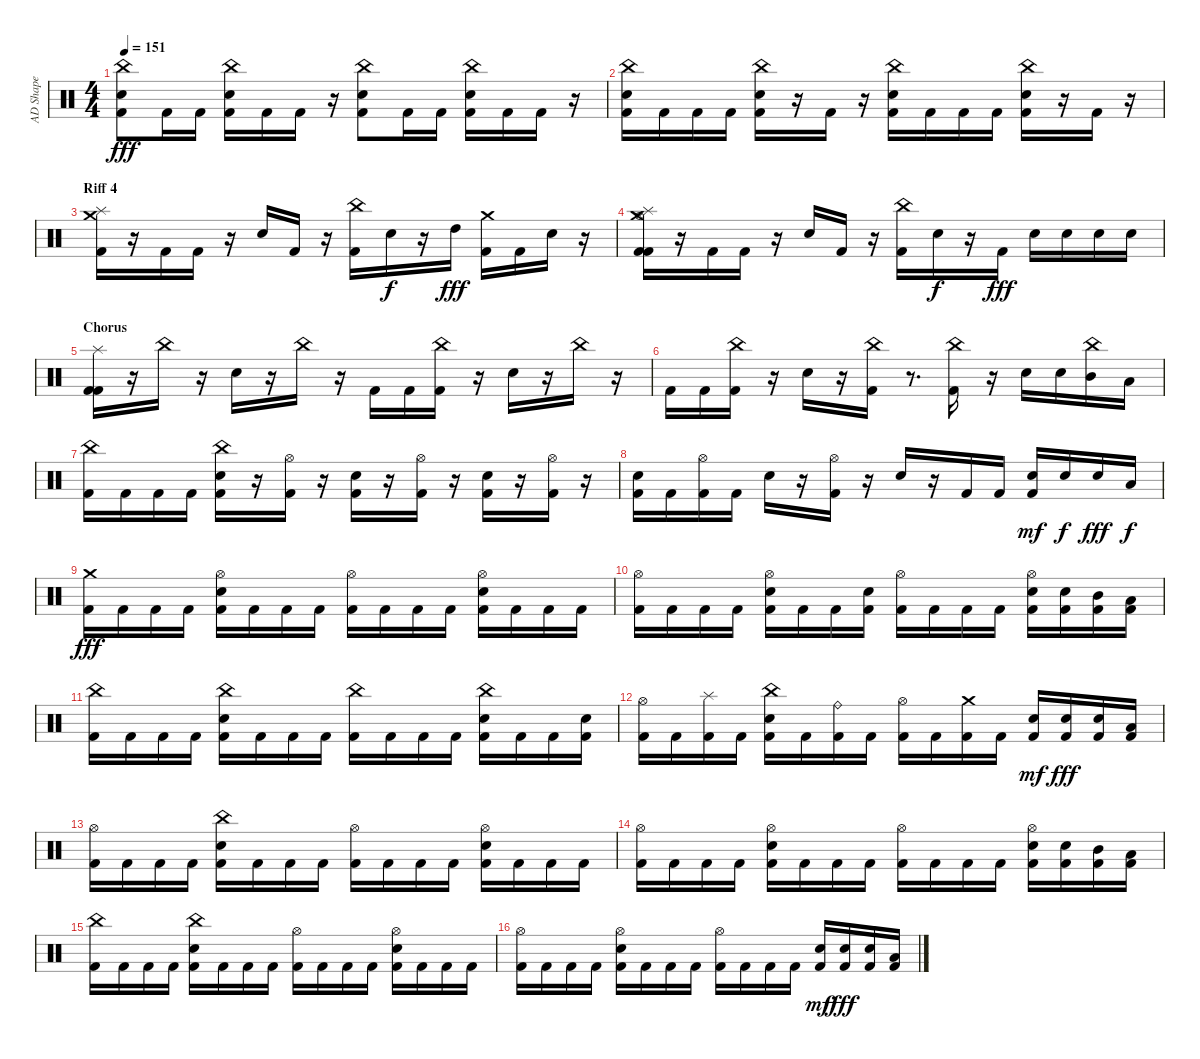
\track ("AD Shape" "AD Shape") {instrument percussion}
\staff {score}
\articulation defaults
\ts (4 4)
\tempo 151
\clef neutral
\ks c
("Kick (hit) 2" "Snare (hit) 2" "China (hit)").8{dy fff} "Kick (hit) 2".16 "Kick (hit) 2".16 ("Kick (hit) 2" "Snare (hit) 2" "China (hit)").16 "Kick (hit) 2".16 "Kick (hit) 2".16 r.16 ("Kick (hit) 2" "Snare (hit) 2" "China (hit)").8 "Kick (hit) 2".16 "Kick (hit) 2".16 ("Kick (hit) 2" "Snare (hit) 2" "China (hit)").16 "Kick (hit) 2".16 "Kick (hit) 2".16 r.16 |
("Kick (hit) 2" "Snare (hit) 2" "China (hit)").16 "Kick (hit) 2".16 "Kick (hit) 2".16 "Kick (hit) 2".16 ("Kick (hit) 2" "Snare (hit) 2" "China (hit)").16 r.16 "Kick (hit) 2".16 r.16 ("Kick (hit) 2" "Snare (hit) 2" "China (hit)").16 "Kick (hit) 2".16 "Kick (hit) 2".16 "Kick (hit) 2".16 ("Kick (hit) 2" "Snare (hit) 2" "China (hit)").16 r.16 "Kick (hit) 2".16 r.16 |
\section ("" "Riff 4")
("Kick (hit) 2" "Splash (hit)" "Crash medium (hit)").16 r.16 "Kick (hit) 2".16 "Kick (hit) 2".16 r.16 "Snare (hit) 2".16 "Kick (hit) 2".16 r.16 ("Kick (hit) 2" "China (hit)").16 "Snare (hit) 2".16{dy f} r.16 "High Tom (hit)".16{dy fff} ("Kick (hit) 2" "Crash medium (hit)").16 "Kick (hit) 2".16 "Snare (hit) 2".16 r.16 |
("Kick (hit) 2" "Splash (hit)" "Kick (hit) 2" "Hi-Hat (open)" "Crash medium (hit)").16 r.16 "Kick (hit) 2".16 "Kick (hit) 2".16 r.16 "Snare (hit) 2".16 "Kick (hit) 2".16 r.16 ("Kick (hit) 2" "China (hit)").16 "Snare (hit) 2".16{dy f} r.16 "Kick (hit) 2".16{dy fff} "Snare (hit) 2".16 "Snare (hit) 2".16 "Snare (hit) 2".16 "Snare (hit) 2".16 |
\section ("" "Chorus")
("Kick (hit) 2" "Splash (hit)" "Kick (hit) 2").16 r.16 "China (hit)".16 r.16 "Snare (hit) 2".16 r.16 "China (hit)".16 r.16 "Kick (hit) 2".16 "Kick (hit) 2".16 ("Kick (hit) 2" "China (hit)").16 r.16 "Snare (hit) 2".16 r.16 "China (hit)".16 r.16 |
"Kick (hit) 2".16 "Kick (hit) 2".16 ("Kick (hit) 2" "China (hit)").16 r.16 "Snare (hit) 2".16 r.16 ("Kick (hit) 2" "China (hit)").16 r.8{d} ("Kick (hit) 2" "China (hit)").16 r.16 "Snare (hit) 2".16 "Snare (hit) 2".16 ("Mid Tom (hit)" "China (hit)").16 "Low Tom (hit)".16 |
("Kick (hit) 2" "China (hit)").16 "Kick (hit) 2".16 "Kick (hit) 2".16 "Kick (hit) 2".16 ("Kick (hit) 2" "Snare (hit) 2" "China (hit)").16 r.16 ("Kick (hit) 2" "Hi-Hat (open)").16 r.16 ("Kick (hit) 2" "Snare (hit) 2").16 r.16 ("Kick (hit) 2" "Hi-Hat (open)").16 r.16 ("Kick (hit) 2" "Snare (hit) 2").16 r.16 ("Kick (hit) 2" "Hi-Hat (open)").16 r.16 |
("Kick (hit) 2" "Snare (hit) 2").16 "Kick (hit) 2".16 ("Kick (hit) 2" "Hi-Hat (open)").16 "Kick (hit) 2".16 "Snare (hit) 2".16 r.16 ("Kick (hit) 2" "Hi-Hat (open)").16 r.16 "Snare (hit) 2".16 r.16 "Kick (hit) 2".16 "Kick (hit) 2".16 ("Kick (hit) 2" "Snare (hit) 2").16{dy mf} "Snare (hit) 2".16{dy f} "Snare (hit) 2".16{dy fff} "Low Tom (hit)".16{dy f} |
("Kick (hit) 2" "Crash medium (hit)").16{dy fff} "Kick (hit) 2".16 "Kick (hit) 2".16 "Kick (hit) 2".16 ("Kick (hit) 2" "Snare (hit) 2" "Hi-Hat (open)").16 "Kick (hit) 2".16 "Kick (hit) 2".16 "Kick (hit) 2".16 ("Kick (hit) 2" "Hi-Hat (open)").16 "Kick (hit) 2".16 "Kick (hit) 2".16 "Kick (hit) 2".16 ("Kick (hit) 2" "Snare (hit) 2" "Hi-Hat (open)").16 "Kick (hit) 2".16 "Kick (hit) 2".16 "Kick (hit) 2".16 |
("Kick (hit) 2" "Hi-Hat (open)").16 "Kick (hit) 2".16 "Kick (hit) 2".16 "Kick (hit) 2".16 ("Kick (hit) 2" "Snare (hit) 2" "Hi-Hat (open)").16 "Kick (hit) 2".16 "Kick (hit) 2".16 ("Kick (hit) 2" "Snare (hit) 2").16 ("Kick (hit) 2" "Hi-Hat (open)").16 "Kick (hit) 2".16 "Kick (hit) 2".16 "Kick (hit) 2".16 ("Kick (hit) 2" "Snare (hit) 2" "Hi-Hat (open)").16 ("Kick (hit) 2" "Snare (hit) 2").16 ("Kick (hit) 2" "Mid Tom (hit)").16 ("Kick (hit) 2" "Low Tom (hit)").16 |
("Kick (hit) 2" "China (hit)").16 "Kick (hit) 2".16 "Kick (hit) 2".16 "Kick (hit) 2".16 ("Kick (hit) 2" "Snare (hit) 2" "China (hit)").16 "Kick (hit) 2".16 "Kick (hit) 2".16 "Kick (hit) 2".16 ("Kick (hit) 2" "China (hit)").16 "Kick (hit) 2".16 "Kick (hit) 2".16 "Kick (hit) 2".16 ("Kick (hit) 2" "Snare (hit) 2" "China (hit)").16 "Kick (hit) 2".16 "Kick (hit) 2".16 ("Kick (hit) 2" "Snare (hit) 2").16 |
("Kick (hit) 2" "Hi-Hat (open)").16 "Kick (hit) 2".16 ("Kick (hit) 2" "Splash (hit)").16 "Kick (hit) 2".16 ("Kick (hit) 2" "Snare (hit) 2" "China (hit)").16 "Kick (hit) 2".16 ("Kick (hit) 2" "Ride (bell)").16 "Kick (hit) 2".16 ("Kick (hit) 2" "Hi-Hat (open)").16 "Kick (hit) 2".16 ("Kick (hit) 2" "Crash medium (hit)").16 "Kick (hit) 2".16 ("Kick (hit) 2" "Snare (hit) 2").16{dy mf} ("Kick (hit) 2" "Snare (hit) 2").16{dy fff} ("Kick (hit) 2" "Snare (hit) 2").16 ("Kick (hit) 2" "Low Tom (hit)").16 |
("Kick (hit) 2" "Hi-Hat (open)").16 "Kick (hit) 2".16 "Kick (hit) 2".16 "Kick (hit) 2".16 ("Kick (hit) 2" "Snare (hit) 2" "China (hit)").16 "Kick (hit) 2".16 "Kick (hit) 2".16 "Kick (hit) 2".16 ("Kick (hit) 2" "Hi-Hat (open)").16 "Kick (hit) 2".16 "Kick (hit) 2".16 "Kick (hit) 2".16 ("Kick (hit) 2" "Snare (hit) 2" "Hi-Hat (open)").16 "Kick (hit) 2".16 "Kick (hit) 2".16 "Kick (hit) 2".16 |
("Kick (hit) 2" "Hi-Hat (open)").16 "Kick (hit) 2".16 "Kick (hit) 2".16 "Kick (hit) 2".16 ("Kick (hit) 2" "Snare (hit) 2" "Hi-Hat (open)").16 "Kick (hit) 2".16 "Kick (hit) 2".16 "Kick (hit) 2".16 ("Kick (hit) 2" "Hi-Hat (open)").16 "Kick (hit) 2".16 "Kick (hit) 2".16 "Kick (hit) 2".16 ("Kick (hit) 2" "Snare (hit) 2" "Hi-Hat (open)").16 ("Kick (hit) 2" "Snare (hit) 2").16 ("Kick (hit) 2" "Mid Tom (hit)").16 ("Kick (hit) 2" "Low Tom (hit)").16 |
("Kick (hit) 2" "China (hit)").16 "Kick (hit) 2".16 "Kick (hit) 2".16 "Kick (hit) 2".16 ("Kick (hit) 2" "Snare (hit) 2" "China (hit)").16 "Kick (hit) 2".16 "Kick (hit) 2".16 "Kick (hit) 2".16 ("Kick (hit) 2" "Hi-Hat (open)").16 "Kick (hit) 2".16 "Kick (hit) 2".16 "Kick (hit) 2".16 ("Kick (hit) 2" "Snare (hit) 2" "Hi-Hat (open)").16 "Kick (hit) 2".16 "Kick (hit) 2".16 "Kick (hit) 2".16 |
("Kick (hit) 2" "Hi-Hat (open)").16 "Kick (hit) 2".16 "Kick (hit) 2".16 "Kick (hit) 2".16 ("Kick (hit) 2" "Snare (hit) 2" "Hi-Hat (open)").16 "Kick (hit) 2".16 "Kick (hit) 2".16 "Kick (hit) 2".16 ("Kick (hit) 2" "Hi-Hat (open)").16 "Kick (hit) 2".16 "Kick (hit) 2".16 "Kick (hit) 2".16 ("Kick (hit) 2" "Snare (hit) 2").16{dy mf} ("Kick (hit) 2" "Snare (hit) 2").16{dy fff} ("Kick (hit) 2" "Snare (hit) 2").16 ("Kick (hit) 2" "Low Tom (hit)").16
